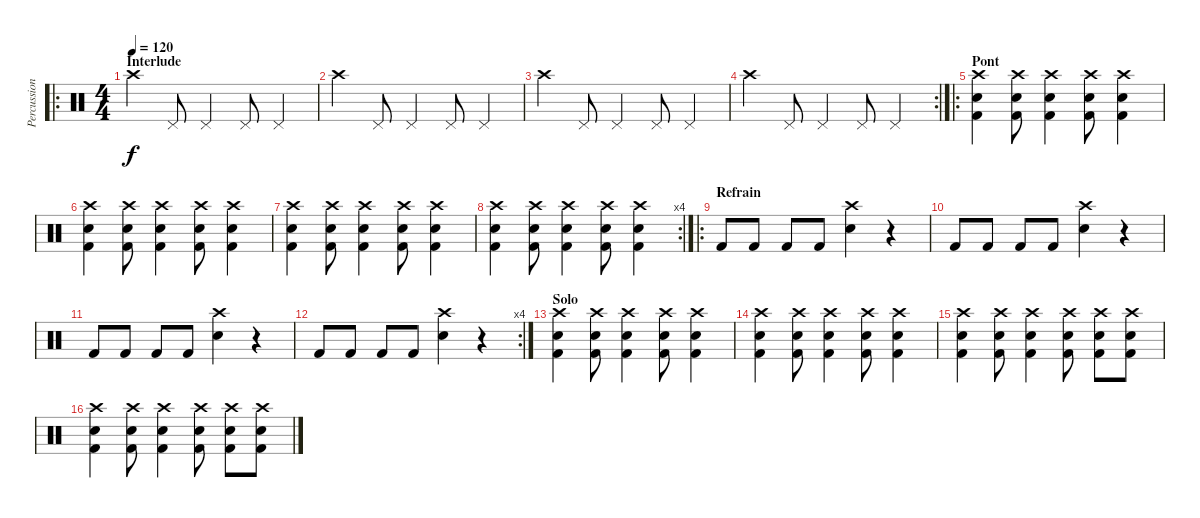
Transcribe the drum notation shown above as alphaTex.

\track ("Percussions" "Percussion") {instrument percussion}
\staff {score}
\articulation defaults
\ro
\ts (4 4)
\section ("" "Interlude")
\tempo 120
\clef neutral
\ks c "Crash high (hit)".4{dy f} "Pedal Hi-Hat (hit)".8 "Pedal Hi-Hat (hit)".4 "Pedal Hi-Hat (hit)".8 "Pedal Hi-Hat (hit)".4
|
"Crash high (hit)".4 "Pedal Hi-Hat (hit)".8 "Pedal Hi-Hat (hit)".4 "Pedal Hi-Hat (hit)".8 "Pedal Hi-Hat (hit)".4 |
"Crash high (hit)".4 "Pedal Hi-Hat (hit)".8 "Pedal Hi-Hat (hit)".4 "Pedal Hi-Hat (hit)".8 "Pedal Hi-Hat (hit)".4 |
\rc 2 "Crash high (hit)".4 "Pedal Hi-Hat (hit)".8 "Pedal Hi-Hat (hit)".4 "Pedal Hi-Hat (hit)".8 "Pedal Hi-Hat (hit)".4
|
\ro
\section ("" "Pont")
("Crash high (hit)" "Snare (hit) 2" "Kick (hit) 2").4 ("Crash high (hit)" "Snare (hit) 2" "Kick (hit) 2").8 ("Crash high (hit)" "Snare (hit) 2" "Kick (hit) 2").4 ("Crash high (hit)" "Snare (hit) 2" "Kick (hit) 2").8 ("Crash high (hit)" "Snare (hit) 2" "Kick (hit) 2").4 |
("Crash high (hit)" "Snare (hit) 2" "Kick (hit) 2").4 ("Crash high (hit)" "Snare (hit) 2" "Kick (hit) 2").8 ("Crash high (hit)" "Snare (hit) 2" "Kick (hit) 2").4 ("Crash high (hit)" "Snare (hit) 2" "Kick (hit) 2").8 ("Crash high (hit)" "Snare (hit) 2" "Kick (hit) 2").4 |
("Crash high (hit)" "Snare (hit) 2" "Kick (hit) 2").4 ("Crash high (hit)" "Snare (hit) 2" "Kick (hit) 2").8 ("Crash high (hit)" "Snare (hit) 2" "Kick (hit) 2").4 ("Crash high (hit)" "Snare (hit) 2" "Kick (hit) 2").8 ("Crash high (hit)" "Snare (hit) 2" "Kick (hit) 2").4 |
\rc 4
("Crash high (hit)" "Snare (hit) 2" "Kick (hit) 2").4 ("Crash high (hit)" "Snare (hit) 2" "Kick (hit) 2").8 ("Crash high (hit)" "Snare (hit) 2" "Kick (hit) 2").4 ("Crash high (hit)" "Snare (hit) 2" "Kick (hit) 2").8 ("Crash high (hit)" "Snare (hit) 2" "Kick (hit) 2").4 |
\ro
\section ("" "Refrain")
"Kick (hit) 2".8 "Kick (hit) 2".8 "Kick (hit) 2".8 "Kick (hit) 2".8 ("Crash high (hit)" "Snare (hit) 2").4 r.4 |
"Kick (hit) 2".8 "Kick (hit) 2".8 "Kick (hit) 2".8 "Kick (hit) 2".8 ("Crash high (hit)" "Snare (hit) 2").4 r.4 |
"Kick (hit) 2".8 "Kick (hit) 2".8 "Kick (hit) 2".8 "Kick (hit) 2".8 ("Crash high (hit)" "Snare (hit) 2").4 r.4 |
\rc 4 "Kick (hit) 2".8 "Kick (hit) 2".8 "Kick (hit) 2".8 "Kick (hit) 2".8
("Crash high (hit)" "Snare (hit) 2").4 r.4 |
\section ("" "Solo")
("Crash high (hit)" "Snare (hit) 2" "Kick (hit) 2").4 ("Crash high (hit)" "Snare (hit) 2" "Kick (hit) 2").8 ("Crash high (hit)" "Snare (hit) 2" "Kick (hit) 2").4 ("Crash high (hit)" "Snare (hit) 2" "Kick (hit) 2").8 ("Crash high (hit)" "Snare (hit) 2" "Kick (hit) 2").4 |
("Crash high (hit)" "Snare (hit) 2" "Kick (hit) 2").4 ("Crash high (hit)" "Snare (hit) 2" "Kick (hit) 2").8 ("Crash high (hit)" "Snare (hit) 2" "Kick (hit) 2").4 ("Crash high (hit)" "Snare (hit) 2" "Kick (hit) 2").8 ("Crash high (hit)" "Snare (hit) 2" "Kick (hit) 2").4 |
("Crash high (hit)" "Snare (hit) 2" "Kick (hit) 2").4 ("Crash high (hit)" "Snare (hit) 2" "Kick (hit) 2").8 ("Crash high (hit)" "Snare (hit) 2" "Kick (hit) 2").4 ("Crash high (hit)" "Snare (hit) 2" "Kick (hit) 2").8 ("Crash high (hit)" "Snare (hit) 2" "Kick (hit) 2").8 ("Crash high (hit)" "Snare (hit) 2" "Kick (hit) 2").8 |
("Crash high (hit)" "Snare (hit) 2" "Kick (hit) 2").4 ("Crash high (hit)" "Snare (hit) 2" "Kick (hit) 2").8 ("Crash high (hit)" "Snare (hit) 2" "Kick (hit) 2").4 ("Crash high (hit)" "Snare (hit) 2" "Kick (hit) 2").8 ("Crash high (hit)" "Snare (hit) 2" "Kick (hit) 2").8 ("Crash high (hit)" "Snare (hit) 2" "Kick (hit) 2").8
